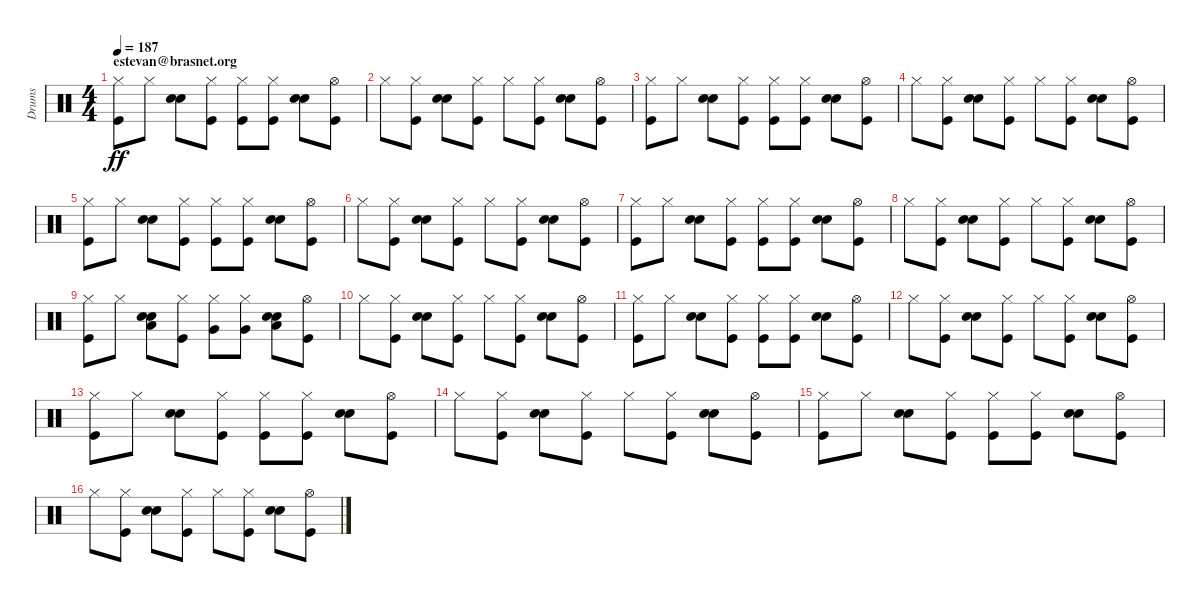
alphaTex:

\track ("Drums" "Drums") {instrument percussion}
\staff {score}
\articulation defaults
\ts (4 4)
\section ("" "estevan@brasnet.org")
\tempo 187
\clef neutral
\ks c
("Kick (hit)" "Hi-Hat (closed)").8{dy ff} "Hi-Hat (closed)".8 ("Snare (hit) 2" "Electric Snare (hit)").8 ("Kick (hit)" "Hi-Hat (closed)").8 ("Kick (hit)" "Hi-Hat (closed)").8 ("Kick (hit)" "Hi-Hat (closed)").8 ("Snare (hit) 2" "Electric Snare (hit)").8 ("Kick (hit)" "Hi-Hat (open)").8 |
"Hi-Hat (closed)".8 ("Kick (hit)" "Hi-Hat (closed)").8 ("Snare (hit) 2" "Electric Snare (hit)").8 ("Kick (hit)" "Hi-Hat (closed)").8 "Hi-Hat (closed)".8 ("Kick (hit)" "Hi-Hat (closed)").8 ("Snare (hit) 2" "Electric Snare (hit)").8 ("Kick (hit)" "Hi-Hat (open)").8 |
("Kick (hit)" "Hi-Hat (closed)").8 "Hi-Hat (closed)".8 ("Snare (hit) 2" "Electric Snare (hit)").8 ("Kick (hit)" "Hi-Hat (closed)").8 ("Kick (hit)" "Hi-Hat (closed)").8 ("Kick (hit)" "Hi-Hat (closed)").8 ("Snare (hit) 2" "Electric Snare (hit)").8 ("Kick (hit)" "Hi-Hat (open)").8 |
"Hi-Hat (closed)".8 ("Kick (hit)" "Hi-Hat (closed)").8 ("Snare (hit) 2" "Electric Snare (hit)").8 ("Kick (hit)" "Hi-Hat (closed)").8 "Hi-Hat (closed)".8 ("Kick (hit)" "Hi-Hat (closed)").8 ("Snare (hit) 2" "Electric Snare (hit)").8 ("Kick (hit)" "Hi-Hat (open)").8 |
("Kick (hit)" "Hi-Hat (closed)").8 "Hi-Hat (closed)".8 ("Snare (hit) 2" "Electric Snare (hit)").8 ("Kick (hit)" "Hi-Hat (closed)").8 ("Kick (hit)" "Hi-Hat (closed)").8 ("Kick (hit)" "Hi-Hat (closed)").8 ("Snare (hit) 2" "Electric Snare (hit)").8 ("Kick (hit)" "Hi-Hat (open)").8 |
"Hi-Hat (closed)".8 ("Kick (hit)" "Hi-Hat (closed)").8 ("Snare (hit) 2" "Electric Snare (hit)").8 ("Kick (hit)" "Hi-Hat (closed)").8 "Hi-Hat (closed)".8 ("Kick (hit)" "Hi-Hat (closed)").8 ("Snare (hit) 2" "Electric Snare (hit)").8 ("Kick (hit)" "Hi-Hat (open)").8 |
("Kick (hit)" "Hi-Hat (closed)").8 "Hi-Hat (closed)".8 ("Snare (hit) 2" "Electric Snare (hit)").8 ("Kick (hit)" "Hi-Hat (closed)").8 ("Kick (hit)" "Hi-Hat (closed)").8 ("Kick (hit)" "Hi-Hat (closed)").8 ("Snare (hit) 2" "Electric Snare (hit)").8 ("Kick (hit)" "Hi-Hat (open)").8 |
"Hi-Hat (closed)".8 ("Kick (hit)" "Hi-Hat (closed)").8 ("Snare (hit) 2" "Electric Snare (hit)").8 ("Kick (hit)" "Hi-Hat (closed)").8 "Hi-Hat (closed)".8 ("Kick (hit)" "Hi-Hat (closed)").8 ("Snare (hit) 2" "Electric Snare (hit)").8 ("Kick (hit)" "Hi-Hat (open)").8 |
("Kick (hit)" "Hi-Hat (closed)").8 "Hi-Hat (closed)".8 ("Snare (hit) 2" "Electric Snare (hit)" "Low Tom (hit)").8 ("Kick (hit)" "Hi-Hat (closed)").8 ("Hi-Hat (closed)" "Very Low Tom (hit)").8 ("Hi-Hat (closed)" "Very Low Tom (hit)").8 ("Snare (hit) 2" "Electric Snare (hit)" "Low Tom (hit)").8 ("Kick (hit)" "Hi-Hat (open)").8 |
"Hi-Hat (closed)".8 ("Kick (hit)" "Hi-Hat (closed)").8 ("Snare (hit) 2" "Electric Snare (hit)").8 ("Kick (hit)" "Hi-Hat (closed)").8 "Hi-Hat (closed)".8 ("Kick (hit)" "Hi-Hat (closed)").8 ("Snare (hit) 2" "Electric Snare (hit)").8 ("Kick (hit)" "Hi-Hat (open)").8 |
("Kick (hit)" "Hi-Hat (closed)").8 "Hi-Hat (closed)".8 ("Snare (hit) 2" "Electric Snare (hit)").8 ("Kick (hit)" "Hi-Hat (closed)").8 ("Kick (hit)" "Hi-Hat (closed)").8 ("Kick (hit)" "Hi-Hat (closed)").8 ("Snare (hit) 2" "Electric Snare (hit)").8 ("Kick (hit)" "Hi-Hat (open)").8 |
"Hi-Hat (closed)".8 ("Kick (hit)" "Hi-Hat (closed)").8 ("Snare (hit) 2" "Electric Snare (hit)").8 ("Kick (hit)" "Hi-Hat (closed)").8 "Hi-Hat (closed)".8 ("Kick (hit)" "Hi-Hat (closed)").8 ("Snare (hit) 2" "Electric Snare (hit)").8 ("Kick (hit)" "Hi-Hat (open)").8 |
("Kick (hit)" "Hi-Hat (closed)").8 "Hi-Hat (closed)".8 ("Snare (hit) 2" "Electric Snare (hit)").8 ("Kick (hit)" "Hi-Hat (closed)").8 ("Kick (hit)" "Hi-Hat (closed)").8 ("Kick (hit)" "Hi-Hat (closed)").8 ("Snare (hit) 2" "Electric Snare (hit)").8 ("Kick (hit)" "Hi-Hat (open)").8 |
"Hi-Hat (closed)".8 ("Kick (hit)" "Hi-Hat (closed)").8 ("Snare (hit) 2" "Electric Snare (hit)").8 ("Kick (hit)" "Hi-Hat (closed)").8 "Hi-Hat (closed)".8 ("Kick (hit)" "Hi-Hat (closed)").8 ("Snare (hit) 2" "Electric Snare (hit)").8 ("Kick (hit)" "Hi-Hat (open)").8 |
("Kick (hit)" "Hi-Hat (closed)").8 "Hi-Hat (closed)".8 ("Snare (hit) 2" "Electric Snare (hit)").8 ("Kick (hit)" "Hi-Hat (closed)").8 ("Kick (hit)" "Hi-Hat (closed)").8 ("Kick (hit)" "Hi-Hat (closed)").8 ("Snare (hit) 2" "Electric Snare (hit)").8 ("Kick (hit)" "Hi-Hat (open)").8 |
"Hi-Hat (closed)".8 ("Kick (hit)" "Hi-Hat (closed)").8 ("Snare (hit) 2" "Electric Snare (hit)").8 ("Kick (hit)" "Hi-Hat (closed)").8 "Hi-Hat (closed)".8 ("Kick (hit)" "Hi-Hat (closed)").8 ("Snare (hit) 2" "Electric Snare (hit)").8 ("Kick (hit)" "Hi-Hat (open)").8
